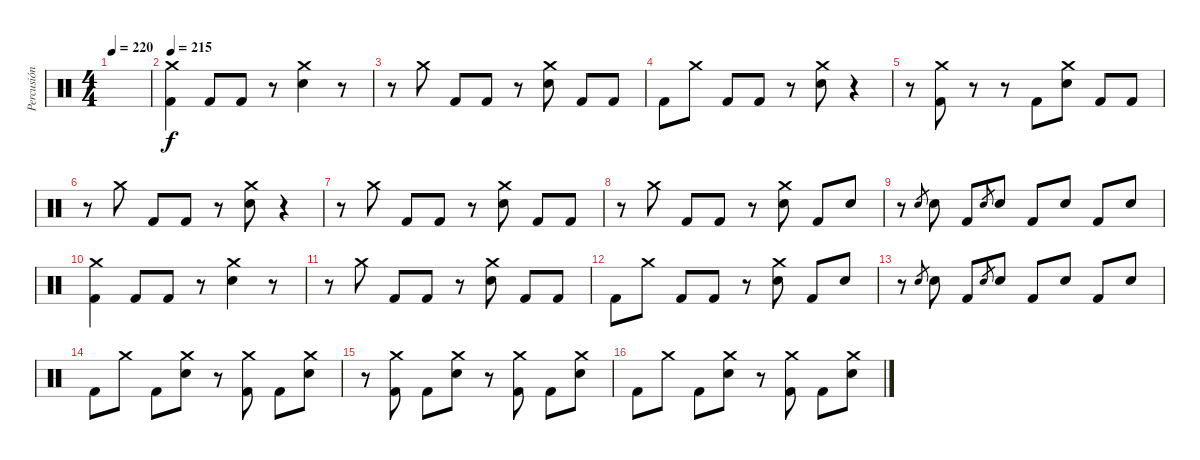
\track ("Percusión" "Percusión") {instrument percussion}
\staff {score}
\articulation defaults
\ts (4 4)
\tempo 220
\clef neutral
\ks c
|
\tempo 215
("Crash medium (hit)" "Kick (hit) 2").4 "Kick (hit) 2".8 "Kick (hit) 2".8 r.8 ("Crash medium (hit)" "Electric Snare (hit)").4 r.8 |
r.8 "Crash medium (hit)".8 "Kick (hit) 2".8 "Kick (hit) 2".8 r.8 ("Crash medium (hit)" "Electric Snare (hit)").8 "Kick (hit) 2".8 "Kick (hit) 2".8 |
"Kick (hit) 2".8 "Crash medium (hit)".8 "Kick (hit) 2".8 "Kick (hit) 2".8 r.8 ("Crash medium (hit)" "Electric Snare (hit)").8 r.4 |
r.8 ("Crash medium (hit)" "Kick (hit) 2").8 r.8 r.8 "Kick (hit) 2".8 ("Crash medium (hit)" "Electric Snare (hit)").8 "Kick (hit) 2".8 "Kick (hit) 2".8 |
r.8 "Crash medium (hit)".8 "Kick (hit) 2".8 "Kick (hit) 2".8 r.8 ("Crash medium (hit)" "Electric Snare (hit)").8 r.4 |
r.8 "Crash medium (hit)".8 "Kick (hit) 2".8 "Kick (hit) 2".8 r.8 ("Crash medium (hit)" "Electric Snare (hit)").8 "Kick (hit) 2".8 "Kick (hit) 2".8 |
r.8 "Crash medium (hit)".8 "Kick (hit) 2".8 "Kick (hit) 2".8 r.8 ("Crash medium (hit)" "Electric Snare (hit)").8 "Kick (hit) 2".8 "Electric Snare (hit)".8 |
r.8 "Electric Snare (hit)".8{gr} "Electric Snare (hit)".8 "Kick (hit) 2".8 "Electric Snare (hit)".8{gr} "Electric Snare (hit)".8 "Kick (hit) 2".8 "Electric Snare (hit)".8 "Kick (hit) 2".8 "Electric Snare (hit)".8 |
("Crash medium (hit)" "Kick (hit) 2").4 "Kick (hit) 2".8 "Kick (hit) 2".8 r.8 ("Crash medium (hit)" "Electric Snare (hit)").4 r.8 |
r.8 "Crash medium (hit)".8 "Kick (hit) 2".8 "Kick (hit) 2".8 r.8 ("Crash medium (hit)" "Electric Snare (hit)").8 "Kick (hit) 2".8 "Kick (hit) 2".8 |
"Kick (hit) 2".8 "Crash medium (hit)".8 "Kick (hit) 2".8 "Kick (hit) 2".8 r.8 ("Crash medium (hit)" "Electric Snare (hit)").8 "Kick (hit) 2".8 "Electric Snare (hit)".8 |
r.8 "Electric Snare (hit)".8{gr} "Electric Snare (hit)".8 "Kick (hit) 2".8 "Electric Snare (hit)".8{gr} "Electric Snare (hit)".8 "Kick (hit) 2".8 "Electric Snare (hit)".8 "Kick (hit) 2".8 "Electric Snare (hit)".8 |
"Kick (hit) 2".8 "Crash medium (hit)".8 "Kick (hit) 2".8 ("Crash medium (hit)" "Electric Snare (hit)").8 r.8 ("Crash medium (hit)" "Kick (hit) 2").8 "Kick (hit) 2".8 ("Crash medium (hit)" "Electric Snare (hit)").8 |
r.8 ("Crash medium (hit)" "Kick (hit) 2").8 "Kick (hit) 2".8 ("Crash medium (hit)" "Electric Snare (hit)").8 r.8 ("Crash medium (hit)" "Kick (hit) 2").8 "Kick (hit) 2".8 ("Crash medium (hit)" "Electric Snare (hit)").8 |
"Kick (hit) 2".8 "Crash medium (hit)".8 "Kick (hit) 2".8 ("Crash medium (hit)" "Electric Snare (hit)").8 r.8 ("Crash medium (hit)" "Kick (hit) 2").8 "Kick (hit) 2".8 ("Crash medium (hit)" "Electric Snare (hit)").8
